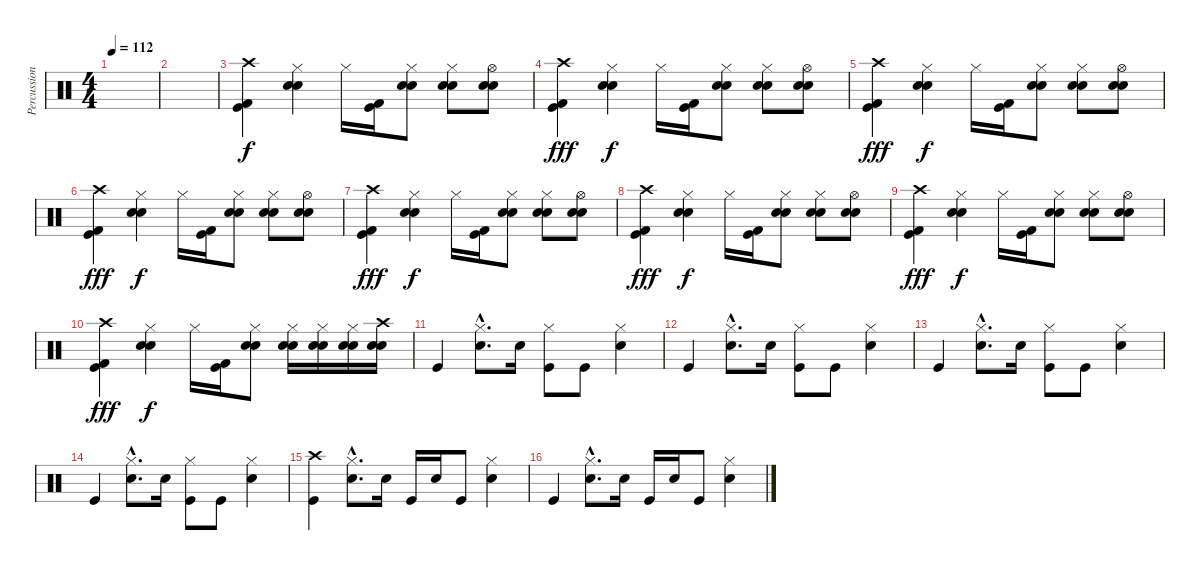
\track ("Percussions" "Percussion") {instrument percussion}
\staff {score}
\articulation defaults
\ts (4 4)
\tempo 112
\clef neutral
\ks c
|
|
("Crash high (hit)" "Kick (hit)" "Kick (hit) 2").4 ("Hi-Hat (closed)" "Snare (hit) 2" "Electric Snare (hit)").4{dy f} "Hi-Hat (closed)".16 ("Kick (hit)" "Kick (hit) 2").16 ("Hi-Hat (closed)" "Snare (hit) 2" "Electric Snare (hit)").8 ("Hi-Hat (closed)" "Snare (hit) 2" "Electric Snare (hit)").8 ("Hi-Hat (open)" "Snare (hit) 2" "Electric Snare (hit)").8 |
("Crash high (hit)" "Kick (hit)" "Kick (hit) 2").4{dy fff} ("Hi-Hat (closed)" "Snare (hit) 2" "Electric Snare (hit)").4{dy f} "Hi-Hat (closed)".16 ("Kick (hit)" "Kick (hit) 2").16 ("Hi-Hat (closed)" "Snare (hit) 2" "Electric Snare (hit)").8 ("Hi-Hat (closed)" "Snare (hit) 2" "Electric Snare (hit)").8 ("Hi-Hat (open)" "Snare (hit) 2" "Electric Snare (hit)").8 |
("Crash high (hit)" "Kick (hit)" "Kick (hit) 2").4{dy fff} ("Hi-Hat (closed)" "Snare (hit) 2" "Electric Snare (hit)").4{dy f} "Hi-Hat (closed)".16 ("Kick (hit)" "Kick (hit) 2").16 ("Hi-Hat (closed)" "Snare (hit) 2" "Electric Snare (hit)").8 ("Hi-Hat (closed)" "Snare (hit) 2" "Electric Snare (hit)").8 ("Hi-Hat (open)" "Snare (hit) 2" "Electric Snare (hit)").8 |
("Crash high (hit)" "Kick (hit)" "Kick (hit) 2").4{dy fff} ("Hi-Hat (closed)" "Snare (hit) 2" "Electric Snare (hit)").4{dy f} "Hi-Hat (closed)".16 ("Kick (hit)" "Kick (hit) 2").16 ("Hi-Hat (closed)" "Snare (hit) 2" "Electric Snare (hit)").8 ("Hi-Hat (closed)" "Snare (hit) 2" "Electric Snare (hit)").8 ("Hi-Hat (open)" "Snare (hit) 2" "Electric Snare (hit)").8 |
("Crash high (hit)" "Kick (hit)" "Kick (hit) 2").4{dy fff} ("Hi-Hat (closed)" "Snare (hit) 2" "Electric Snare (hit)").4{dy f} "Hi-Hat (closed)".16 ("Kick (hit)" "Kick (hit) 2").16 ("Hi-Hat (closed)" "Snare (hit) 2" "Electric Snare (hit)").8 ("Hi-Hat (closed)" "Snare (hit) 2" "Electric Snare (hit)").8 ("Hi-Hat (open)" "Snare (hit) 2" "Electric Snare (hit)").8 |
("Crash high (hit)" "Kick (hit)" "Kick (hit) 2").4{dy fff} ("Hi-Hat (closed)" "Snare (hit) 2" "Electric Snare (hit)").4{dy f} "Hi-Hat (closed)".16 ("Kick (hit)" "Kick (hit) 2").16 ("Hi-Hat (closed)" "Snare (hit) 2" "Electric Snare (hit)").8 ("Hi-Hat (closed)" "Snare (hit) 2" "Electric Snare (hit)").8 ("Hi-Hat (open)" "Snare (hit) 2" "Electric Snare (hit)").8 |
("Crash high (hit)" "Kick (hit)" "Kick (hit) 2").4{dy fff} ("Hi-Hat (closed)" "Snare (hit) 2" "Electric Snare (hit)").4{dy f} "Hi-Hat (closed)".16 ("Kick (hit)" "Kick (hit) 2").16 ("Hi-Hat (closed)" "Snare (hit) 2" "Electric Snare (hit)").8 ("Hi-Hat (closed)" "Snare (hit) 2" "Electric Snare (hit)").8 ("Hi-Hat (open)" "Snare (hit) 2" "Electric Snare (hit)").8 |
("Crash high (hit)" "Kick (hit)" "Kick (hit) 2").4{dy fff} ("Hi-Hat (closed)" "Snare (hit) 2" "Electric Snare (hit)").4{dy f} "Hi-Hat (closed)".16 ("Kick (hit)" "Kick (hit) 2").16 ("Hi-Hat (closed)" "Snare (hit) 2" "Electric Snare (hit)").8 ("Hi-Hat (closed)" "Snare (hit) 2" "Electric Snare (hit)").16 ("Hi-Hat (closed)" "Snare (hit) 2" "Electric Snare (hit)").16 ("Hi-Hat (closed)" "Snare (hit) 2" "Electric Snare (hit)").16 ("Crash high (hit)" "Snare (hit) 2" "Electric Snare (hit)").16 |
"Kick (hit)".4 ("Hi-Hat (closed)"{hac} "Snare (hit) 2"{hac}).8{d} "Snare (hit) 2".16 ("Hi-Hat (closed)" "Kick (hit)").8 "Kick (hit)".8 ("Hi-Hat (closed)" "Snare (hit) 2").4 |
"Kick (hit)".4 ("Hi-Hat (closed)"{hac} "Snare (hit) 2"{hac}).8{d} "Snare (hit) 2".16 ("Hi-Hat (closed)" "Kick (hit)").8 "Kick (hit)".8 ("Hi-Hat (closed)" "Snare (hit) 2").4 |
"Kick (hit)".4 ("Hi-Hat (closed)"{hac} "Snare (hit) 2"{hac}).8{d} "Snare (hit) 2".16 ("Hi-Hat (closed)" "Kick (hit)").8 "Kick (hit)".8 ("Hi-Hat (closed)" "Snare (hit) 2").4 |
"Kick (hit)".4 ("Hi-Hat (closed)"{hac} "Snare (hit) 2"{hac}).8{d} "Snare (hit) 2".16 ("Hi-Hat (closed)" "Kick (hit)").8 "Kick (hit)".8 ("Hi-Hat (closed)" "Snare (hit) 2").4 |
("Crash high (hit)" "Kick (hit)").4 ("Hi-Hat (closed)"{hac} "Snare (hit) 2"{hac}).8{d} "Snare (hit) 2".16 "Kick (hit)".16 "Snare (hit) 2".16 "Kick (hit)".8 ("Hi-Hat (closed)" "Snare (hit) 2").4 |
"Kick (hit)".4 ("Hi-Hat (closed)"{hac} "Snare (hit) 2"{hac}).8{d} "Snare (hit) 2".16 "Kick (hit)".16 "Snare (hit) 2".16 "Kick (hit)".8 ("Hi-Hat (closed)" "Snare (hit) 2").4
